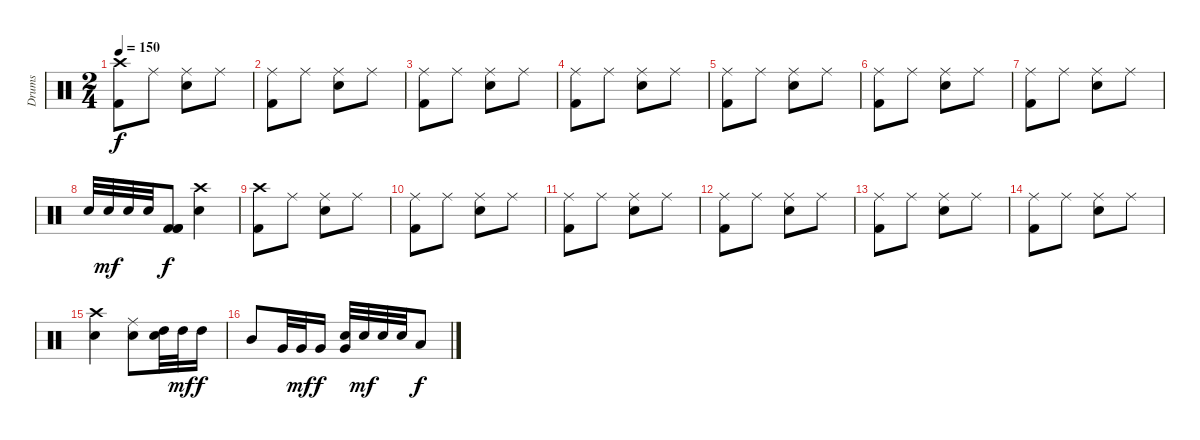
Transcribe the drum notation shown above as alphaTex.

\track ("Drums" "Drums") {instrument percussion}
\staff {score}
\articulation defaults
\ts (2 4)
\tempo 150
\clef neutral
\ks c
("Crash high (hit)" "Kick (hit) 2").8{dy f} "Ride (middle)".8 ("Ride (middle)" "Electric Snare (hit)").8 "Ride (middle)".8 |
("Ride (middle)" "Kick (hit) 2").8 "Ride (middle)".8 ("Ride (middle)" "Electric Snare (hit)").8 "Ride (middle)".8 |
("Ride (middle)" "Kick (hit) 2").8 "Ride (middle)".8 ("Ride (middle)" "Electric Snare (hit)").8 "Ride (middle)".8 |
("Ride (middle)" "Kick (hit) 2").8 "Ride (middle)".8 ("Ride (middle)" "Electric Snare (hit)").8 "Ride (middle)".8 |
("Ride (middle)" "Kick (hit) 2").8 "Ride (middle)".8 ("Ride (middle)" "Electric Snare (hit)").8 "Ride (middle)".8 |
("Ride (middle)" "Kick (hit) 2").8 "Ride (middle)".8 ("Ride (middle)" "Electric Snare (hit)").8 "Ride (middle)".8 |
("Ride (middle)" "Kick (hit) 2").8 "Ride (middle)".8 ("Ride (middle)" "Electric Snare (hit)").8 "Ride (middle)".8 |
"Electric Snare (hit)".32 "Electric Snare (hit)".32{dy mf} "Electric Snare (hit)".32 "Electric Snare (hit)".32 ("Kick (hit) 2" "Kick (hit) 2" "Kick (hit) 2").8{dy f} ("Crash high (hit)" "Electric Snare (hit)").4 |
("Crash high (hit)" "Kick (hit) 2").8 "Ride (middle)".8 ("Ride (middle)" "Electric Snare (hit)").8 "Ride (middle)".8 |
("Ride (middle)" "Kick (hit) 2").8 "Ride (middle)".8 ("Ride (middle)" "Electric Snare (hit)").8 "Ride (middle)".8 |
("Ride (middle)" "Kick (hit) 2").8 "Ride (middle)".8 ("Ride (middle)" "Electric Snare (hit)").8 "Ride (middle)".8 |
("Ride (middle)" "Kick (hit) 2").8 "Ride (middle)".8 ("Ride (middle)" "Electric Snare (hit)").8 "Ride (middle)".8 |
("Ride (middle)" "Kick (hit) 2").8 "Ride (middle)".8 ("Ride (middle)" "Electric Snare (hit)").8 "Ride (middle)".8 |
("Ride (middle)" "Kick (hit) 2").8 "Ride (middle)".8 ("Ride (middle)" "Electric Snare (hit)").8 "Ride (middle)".8 |
("Crash high (hit)" "Electric Snare (hit)").4 ("Ride (middle)" "Electric Snare (hit)").8 ("High Tom (hit)" "Electric Snare (hit)").32 "High Tom (hit)".32{dy mf} "High Tom (hit)".16{dy f} |
"Mid Tom (hit)".8 "Very Low Tom (hit)".32 "Very Low Tom (hit)".32{dy mf} "Very Low Tom (hit)".16{dy f} ("Electric Snare (hit)" "Very Low Tom (hit)").32 "Electric Snare (hit)".32{dy mf} "Electric Snare (hit)".32 "Electric Snare (hit)".32 "Low Floor Tom (hit)".8{dy f}
